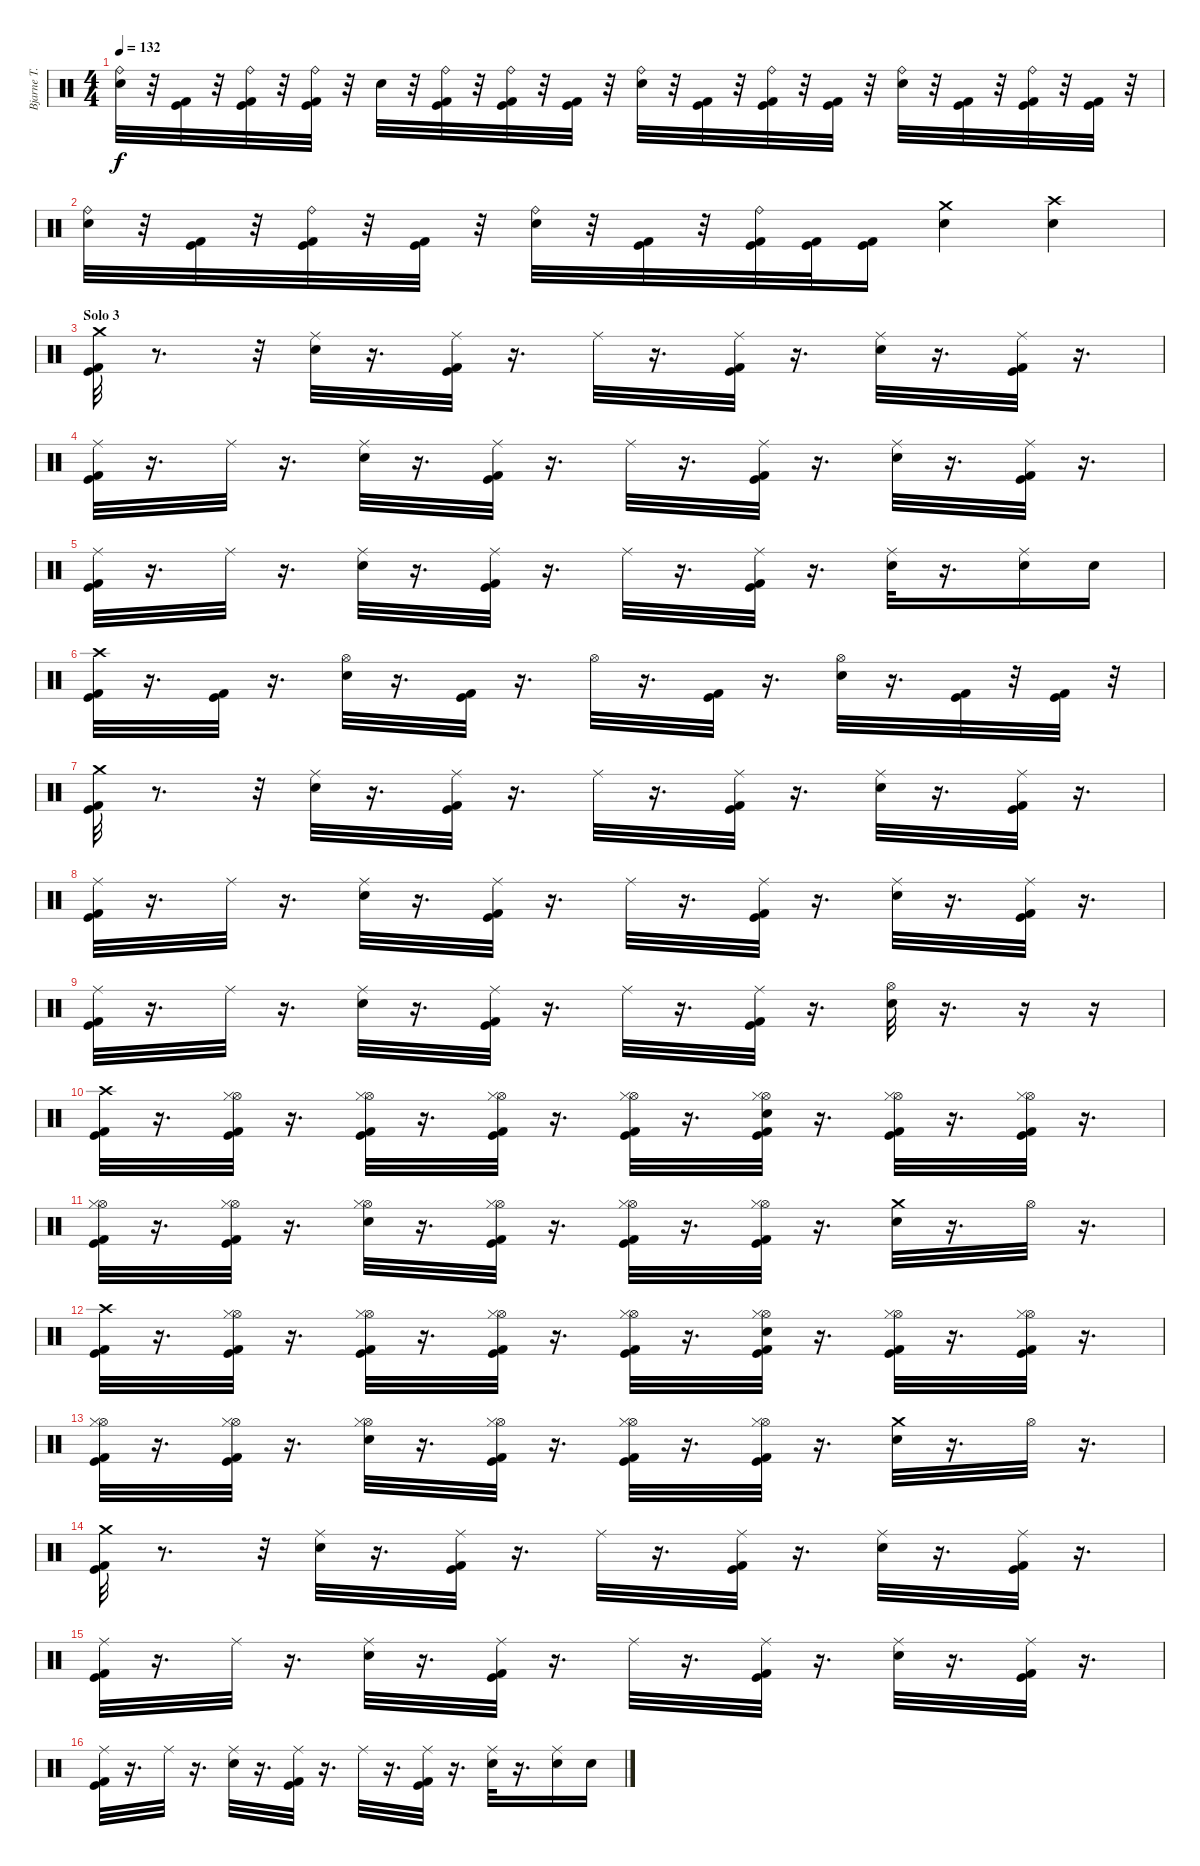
\track ("Bjarne T. Holme" "Bjarne T. ") {instrument percussion}
\staff {score}
\articulation defaults
\ts (4 4)
\tempo 132
\clef neutral
\ks c
("Ride (bell)" "Snare (hit) 2").32{dy f} r.32 ("Kick (hit)" "Kick (hit) 2").32 r.32 ("Ride (bell)" "Kick (hit)" "Kick (hit) 2").32 r.32 ("Ride (bell)" "Kick (hit)" "Kick (hit) 2").32 r.32 "Snare (hit) 2".32 r.32 ("Ride (bell)" "Kick (hit)" "Kick (hit) 2").32 r.32 ("Ride (bell)" "Kick (hit)" "Kick (hit) 2").32 r.32 ("Kick (hit)" "Kick (hit) 2").32 r.32 ("Ride (bell)" "Snare (hit) 2").32 r.32 ("Kick (hit)" "Kick (hit) 2").32 r.32 ("Ride (bell)" "Kick (hit)" "Kick (hit) 2").32 r.32 ("Kick (hit)" "Kick (hit) 2").32 r.32 ("Ride (bell)" "Snare (hit) 2").32 r.32 ("Kick (hit)" "Kick (hit) 2").32 r.32 ("Ride (bell)" "Kick (hit)" "Kick (hit) 2").32 r.32 ("Kick (hit)" "Kick (hit) 2").32 r.32 |
("Ride (bell)" "Snare (hit) 2").32 r.32 ("Kick (hit)" "Kick (hit) 2").32 r.32 ("Ride (bell)" "Kick (hit)" "Kick (hit) 2").32 r.32 ("Kick (hit)" "Kick (hit) 2").32 r.32 ("Ride (bell)" "Snare (hit) 2").32 r.32 ("Kick (hit)" "Kick (hit) 2").32 r.32 ("Ride (bell)" "Kick (hit)" "Kick (hit) 2").32 ("Kick (hit)" "Kick (hit) 2").32 ("Kick (hit)" "Kick (hit) 2").16 ("Crash medium (hit)" "Snare (hit) 2").4 ("Crash high (hit)" "Snare (hit) 2").4 |
\section ("" "Solo 3")
("Crash medium (hit)" "Kick (hit)" "Kick (hit) 2").32 r.8{d} r.32 ("Ride (middle)" "Snare (hit) 2").32 r.16{d} ("Ride (middle)" "Kick (hit)" "Kick (hit) 2").32 r.16{d} "Ride (middle)".32 r.16{d} ("Ride (middle)" "Kick (hit)" "Kick (hit) 2").32 r.16{d} ("Ride (middle)" "Snare (hit) 2").32 r.16{d} ("Ride (middle)" "Kick (hit)" "Kick (hit) 2").32 r.16{d} |
("Ride (middle)" "Kick (hit)" "Kick (hit) 2").32 r.16{d} "Ride (middle)".32 r.16{d} ("Ride (middle)" "Snare (hit) 2").32 r.16{d} ("Ride (middle)" "Kick (hit)" "Kick (hit) 2").32 r.16{d} "Ride (middle)".32 r.16{d} ("Ride (middle)" "Kick (hit)" "Kick (hit) 2").32 r.16{d} ("Ride (middle)" "Snare (hit) 2").32 r.16{d} ("Ride (middle)" "Kick (hit)" "Kick (hit) 2").32 r.16{d} |
("Ride (middle)" "Kick (hit)" "Kick (hit) 2").32 r.16{d} "Ride (middle)".32 r.16{d} ("Ride (middle)" "Snare (hit) 2").32 r.16{d} ("Ride (middle)" "Kick (hit)" "Kick (hit) 2").32 r.16{d} "Ride (middle)".32 r.16{d} ("Ride (middle)" "Kick (hit)" "Kick (hit) 2").32 r.16{d} ("Ride (middle)" "Snare (hit) 2").32 r.16{d} ("Ride (middle)" "Snare (hit) 2").16 "Snare (hit) 2".16 |
("Crash high (hit)" "Kick (hit)" "Kick (hit) 2").32 r.16{d} ("Kick (hit)" "Kick (hit) 2").32 r.16{d} ("Hi-Hat (open)" "Snare (hit) 2").32 r.16{d} ("Kick (hit)" "Kick (hit) 2").32 r.16{d} "Hi-Hat (open)".32 r.16{d} ("Kick (hit)" "Kick (hit) 2").32 r.16{d} ("Hi-Hat (open)" "Snare (hit) 2").32 r.16{d} ("Kick (hit)" "Kick (hit) 2").32 r.32 ("Kick (hit)" "Kick (hit) 2").32 r.32 |
("Crash medium (hit)" "Kick (hit)" "Kick (hit) 2").32 r.8{d} r.32 ("Ride (middle)" "Snare (hit) 2").32 r.16{d} ("Ride (middle)" "Kick (hit)" "Kick (hit) 2").32 r.16{d} "Ride (middle)".32 r.16{d} ("Ride (middle)" "Kick (hit)" "Kick (hit) 2").32 r.16{d} ("Ride (middle)" "Snare (hit) 2").32 r.16{d} ("Ride (middle)" "Kick (hit)" "Kick (hit) 2").32 r.16{d} |
("Ride (middle)" "Kick (hit)" "Kick (hit) 2").32 r.16{d} "Ride (middle)".32 r.16{d} ("Ride (middle)" "Snare (hit) 2").32 r.16{d} ("Ride (middle)" "Kick (hit)" "Kick (hit) 2").32 r.16{d} "Ride (middle)".32 r.16{d} ("Ride (middle)" "Kick (hit)" "Kick (hit) 2").32 r.16{d} ("Ride (middle)" "Snare (hit) 2").32 r.16{d} ("Ride (middle)" "Kick (hit)" "Kick (hit) 2").32 r.16{d} |
("Ride (middle)" "Kick (hit)" "Kick (hit) 2").32 r.16{d} "Ride (middle)".32 r.16{d} ("Ride (middle)" "Snare (hit) 2").32 r.16{d} ("Ride (middle)" "Kick (hit)" "Kick (hit) 2").32 r.16{d} "Ride (middle)".32 r.16{d} ("Ride (middle)" "Kick (hit)" "Kick (hit) 2").32 r.16{d} ("Hi-Hat (open)" "Snare (hit) 2").32 r.16{d} r.16 r.16 |
("Crash high (hit)" "Kick (hit)" "Kick (hit) 2").32 r.16{d} ("Hi-Hat (open)" "Hi-Hat (closed)" "Kick (hit)" "Kick (hit) 2").32 r.16{d} ("Hi-Hat (open)" "Hi-Hat (closed)" "Kick (hit)" "Kick (hit) 2").32 r.16{d} ("Hi-Hat (open)" "Hi-Hat (closed)" "Kick (hit)" "Kick (hit) 2").32 r.16{d} ("Hi-Hat (open)" "Hi-Hat (closed)" "Kick (hit)" "Kick (hit) 2").32 r.16{d} ("Hi-Hat (open)" "Hi-Hat (closed)" "Snare (hit) 2" "Kick (hit)" "Kick (hit) 2").32 r.16{d} ("Hi-Hat (open)" "Hi-Hat (closed)" "Kick (hit)" "Kick (hit) 2").32 r.16{d} ("Hi-Hat (open)" "Hi-Hat (closed)" "Kick (hit)" "Kick (hit) 2").32 r.16{d} |
("Hi-Hat (open)" "Hi-Hat (closed)" "Kick (hit)" "Kick (hit) 2").32 r.16{d} ("Hi-Hat (open)" "Hi-Hat (closed)" "Kick (hit)" "Kick (hit) 2").32 r.16{d} ("Hi-Hat (open)" "Hi-Hat (closed)" "Snare (hit) 2").32 r.16{d} ("Hi-Hat (open)" "Hi-Hat (closed)" "Kick (hit)" "Kick (hit) 2").32 r.16{d} ("Hi-Hat (open)" "Hi-Hat (closed)" "Kick (hit)" "Kick (hit) 2").32 r.16{d} ("Hi-Hat (open)" "Hi-Hat (closed)" "Kick (hit)" "Kick (hit) 2").32 r.16{d} ("Crash medium (hit)" "Snare (hit) 2").32 r.16{d} "Hi-Hat (open)".32 r.16{d} |
("Crash high (hit)" "Kick (hit)" "Kick (hit) 2").32 r.16{d} ("Hi-Hat (open)" "Hi-Hat (closed)" "Kick (hit)" "Kick (hit) 2").32 r.16{d} ("Hi-Hat (open)" "Hi-Hat (closed)" "Kick (hit)" "Kick (hit) 2").32 r.16{d} ("Hi-Hat (open)" "Hi-Hat (closed)" "Kick (hit)" "Kick (hit) 2").32 r.16{d} ("Hi-Hat (open)" "Hi-Hat (closed)" "Kick (hit)" "Kick (hit) 2").32 r.16{d} ("Hi-Hat (open)" "Hi-Hat (closed)" "Snare (hit) 2" "Kick (hit)" "Kick (hit) 2").32 r.16{d} ("Hi-Hat (open)" "Hi-Hat (closed)" "Kick (hit)" "Kick (hit) 2").32 r.16{d} ("Hi-Hat (open)" "Hi-Hat (closed)" "Kick (hit)" "Kick (hit) 2").32 r.16{d} |
("Hi-Hat (open)" "Hi-Hat (closed)" "Kick (hit)" "Kick (hit) 2").32 r.16{d} ("Hi-Hat (open)" "Hi-Hat (closed)" "Kick (hit)" "Kick (hit) 2").32 r.16{d} ("Hi-Hat (open)" "Hi-Hat (closed)" "Snare (hit) 2").32 r.16{d} ("Hi-Hat (open)" "Hi-Hat (closed)" "Kick (hit)" "Kick (hit) 2").32 r.16{d} ("Hi-Hat (open)" "Hi-Hat (closed)" "Kick (hit)" "Kick (hit) 2").32 r.16{d} ("Hi-Hat (open)" "Hi-Hat (closed)" "Kick (hit)" "Kick (hit) 2").32 r.16{d} ("Crash medium (hit)" "Snare (hit) 2").32 r.16{d} "Hi-Hat (open)".32 r.16{d} |
("Crash medium (hit)" "Kick (hit)" "Kick (hit) 2").32 r.8{d} r.32 ("Ride (middle)" "Snare (hit) 2").32 r.16{d} ("Ride (middle)" "Kick (hit)" "Kick (hit) 2").32 r.16{d} "Ride (middle)".32 r.16{d} ("Ride (middle)" "Kick (hit)" "Kick (hit) 2").32 r.16{d} ("Ride (middle)" "Snare (hit) 2").32 r.16{d} ("Ride (middle)" "Kick (hit)" "Kick (hit) 2").32 r.16{d} |
("Ride (middle)" "Kick (hit)" "Kick (hit) 2").32 r.16{d} "Ride (middle)".32 r.16{d} ("Ride (middle)" "Snare (hit) 2").32 r.16{d} ("Ride (middle)" "Kick (hit)" "Kick (hit) 2").32 r.16{d} "Ride (middle)".32 r.16{d} ("Ride (middle)" "Kick (hit)" "Kick (hit) 2").32 r.16{d} ("Ride (middle)" "Snare (hit) 2").32 r.16{d} ("Ride (middle)" "Kick (hit)" "Kick (hit) 2").32 r.16{d} |
("Ride (middle)" "Kick (hit)" "Kick (hit) 2").32 r.16{d} "Ride (middle)".32 r.16{d} ("Ride (middle)" "Snare (hit) 2").32 r.16{d} ("Ride (middle)" "Kick (hit)" "Kick (hit) 2").32 r.16{d} "Ride (middle)".32 r.16{d} ("Ride (middle)" "Kick (hit)" "Kick (hit) 2").32 r.16{d} ("Ride (middle)" "Snare (hit) 2").32 r.16{d} ("Ride (middle)" "Snare (hit) 2").16 "Snare (hit) 2".16
